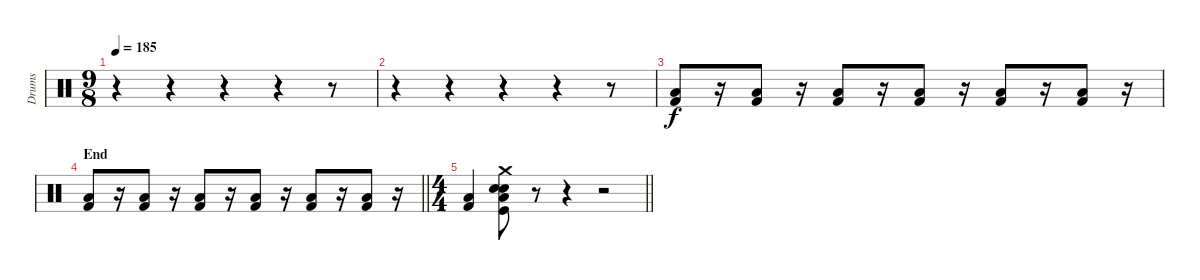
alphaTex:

\track ("Drums" "Drums") {instrument percussion}
\staff {score}
\articulation defaults
\ts (9 8)
\tempo 185
\clef neutral
\ks c
r.4{dy f} r.4 r.4 r.4 r.8 |
r.4 r.4 r.4 r.4 r.8 |
("Low Floor Tom (hit)" "Kick (hit) 2").8 r.16 ("Low Floor Tom (hit)" "Kick (hit) 2").8 r.16 ("Low Floor Tom (hit)" "Kick (hit) 2").8 r.16 ("Low Floor Tom (hit)" "Kick (hit) 2").8 r.16 ("Low Floor Tom (hit)" "Kick (hit) 2").8 r.16 ("Low Floor Tom (hit)" "Kick (hit) 2").8 r.16 |
\section ("" "End")
\barLineRight lightlight
("Low Floor Tom (hit)" "Kick (hit) 2").8 r.16 ("Low Floor Tom (hit)" "Kick (hit) 2").8 r.16 ("Low Floor Tom (hit)" "Kick (hit) 2").8 r.16 ("Low Floor Tom (hit)" "Kick (hit) 2").8 r.16 ("Low Floor Tom (hit)" "Kick (hit) 2").8 r.16 ("Low Floor Tom (hit)" "Kick (hit) 2").8 r.16 |
\ts (4 4)
\barLineRight lightlight
("Low Floor Tom (hit)" "Kick (hit) 2").4 ("Crash medium (hit)" "Kick (hit)" "Electric Snare (hit)" "Low Floor Tom (hit)" "Snare (hit)").8 r.8 r.4 r.2
